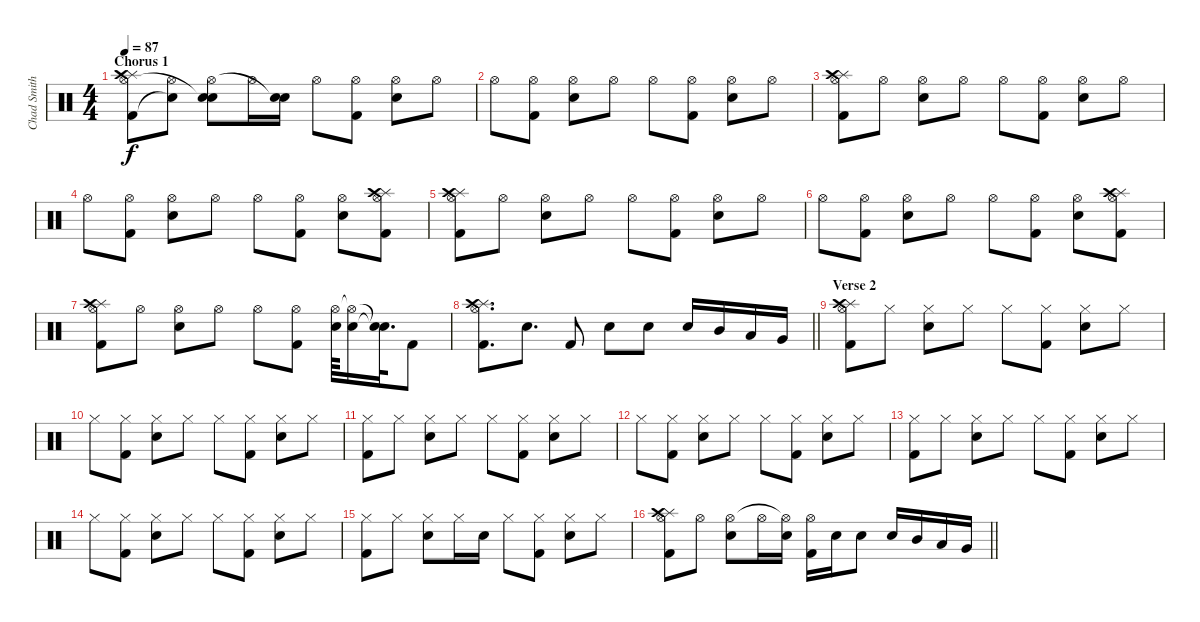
\track ("Chad Smith" "Chad Smith") {instrument percussion}
\staff {score}
\articulation defaults
\ts (4 4)
\section ("" "Chorus 1")
\tempo 87
\clef neutral
\ks c
("Splash (hit)" "Kick (hit) 2" "Hi-Hat (open)" "Crash high (hit)").8{dy f} ("Hi-Hat (open)" "Snare (hit)"{t}).8 ("Electric Snare (hit)" "Hi-Hat (open)" "Snare (hit)"{t}).8 "Hi-Hat (open)".16 ("Electric Snare (hit)" "Snare (hit)"{t}).16 "Hi-Hat (open)".8 ("Kick (hit) 2" "Hi-Hat (open)").8 ("Electric Snare (hit)" "Hi-Hat (open)").8 "Hi-Hat (open)".8 |
"Hi-Hat (open)".8 ("Kick (hit) 2" "Hi-Hat (open)").8 ("Electric Snare (hit)" "Hi-Hat (open)").8 "Hi-Hat (open)".8 "Hi-Hat (open)".8 ("Kick (hit) 2" "Hi-Hat (open)").8 ("Electric Snare (hit)" "Hi-Hat (open)").8 "Hi-Hat (open)".8 |
("Splash (hit)" "Kick (hit) 2" "Hi-Hat (open)" "Crash high (hit)").8 "Hi-Hat (open)".8 ("Electric Snare (hit)" "Hi-Hat (open)").8 "Hi-Hat (open)".8 "Hi-Hat (open)".8 ("Kick (hit) 2" "Hi-Hat (open)").8 ("Electric Snare (hit)" "Hi-Hat (open)").8 "Hi-Hat (open)".8 |
"Hi-Hat (open)".8 ("Kick (hit) 2" "Hi-Hat (open)").8 ("Electric Snare (hit)" "Hi-Hat (open)").8 "Hi-Hat (open)".8 "Hi-Hat (open)".8 ("Kick (hit) 2" "Hi-Hat (open)").8 ("Electric Snare (hit)" "Hi-Hat (open)").8 ("Splash (hit)" "Kick (hit) 2" "Hi-Hat (open)" "Crash high (hit)").8 |
("Splash (hit)" "Kick (hit) 2" "Hi-Hat (open)" "Crash high (hit)").8 "Hi-Hat (open)".8 ("Electric Snare (hit)" "Hi-Hat (open)").8 "Hi-Hat (open)".8 "Hi-Hat (open)".8 ("Kick (hit) 2" "Hi-Hat (open)").8 ("Electric Snare (hit)" "Hi-Hat (open)").8 "Hi-Hat (open)".8 |
"Hi-Hat (open)".8 ("Kick (hit) 2" "Hi-Hat (open)").8 ("Electric Snare (hit)" "Hi-Hat (open)").8 "Hi-Hat (open)".8 "Hi-Hat (open)".8 ("Kick (hit) 2" "Hi-Hat (open)").8 ("Electric Snare (hit)" "Hi-Hat (open)").8 ("Splash (hit)" "Kick (hit) 2" "Hi-Hat (open)" "Crash high (hit)").8 |
("Splash (hit)" "Kick (hit) 2" "Hi-Hat (open)" "Crash high (hit)").8 "Hi-Hat (open)".8 ("Electric Snare (hit)" "Hi-Hat (open)").8 "Hi-Hat (open)".8 "Hi-Hat (open)".8 ("Kick (hit) 2" "Hi-Hat (open)").8 ("Electric Snare (hit)" "Hi-Hat (open)").64 ("Electric Snare (hit)" "Hi-Hat (open)"{t}).16 ("Snare (hit)"{t} "Snare (hit)"{t}).32{d} "Kick (hit) 2".8 |
\barLineRight lightlight
("Splash (hit)" "Kick (hit) 2" "Hi-Hat (open)" "Crash high (hit)").8{d} "Electric Snare (hit)".8{d} "Kick (hit) 2".8 "Electric Snare (hit)".8 "Electric Snare (hit)".8 "Electric Snare (hit)".16 "Mid Tom (hit)".16 "Low Tom (hit)".16 "Very Low Tom (hit)".16 |
\section ("" "Verse 2")
("Splash (hit)" "Kick (hit) 2" "Hi-Hat (open)" "Crash high (hit)").8 "Hi-Hat (closed)".8 ("Electric Snare (hit)" "Hi-Hat (closed)").8 "Hi-Hat (closed)".8 "Hi-Hat (closed)".8 ("Kick (hit) 2" "Hi-Hat (closed)").8 ("Electric Snare (hit)" "Hi-Hat (closed)").8 "Hi-Hat (closed)".8 |
"Hi-Hat (closed)".8 ("Kick (hit) 2" "Hi-Hat (closed)").8 ("Electric Snare (hit)" "Hi-Hat (closed)").8 "Hi-Hat (closed)".8 "Hi-Hat (closed)".8 ("Kick (hit) 2" "Hi-Hat (closed)").8 ("Electric Snare (hit)" "Hi-Hat (closed)").8 "Hi-Hat (closed)".8 |
("Kick (hit) 2" "Hi-Hat (closed)").8 "Hi-Hat (closed)".8 ("Electric Snare (hit)" "Hi-Hat (closed)").8 "Hi-Hat (closed)".8 "Hi-Hat (closed)".8 ("Kick (hit) 2" "Hi-Hat (closed)").8 ("Electric Snare (hit)" "Hi-Hat (closed)").8 "Hi-Hat (closed)".8 |
"Hi-Hat (closed)".8 ("Kick (hit) 2" "Hi-Hat (closed)").8 ("Electric Snare (hit)" "Hi-Hat (closed)").8 "Hi-Hat (closed)".8 "Hi-Hat (closed)".8 ("Kick (hit) 2" "Hi-Hat (closed)").8 ("Electric Snare (hit)" "Hi-Hat (closed)").8 "Hi-Hat (closed)".8 |
("Kick (hit) 2" "Hi-Hat (closed)").8 "Hi-Hat (closed)".8 ("Electric Snare (hit)" "Hi-Hat (closed)").8 "Hi-Hat (closed)".8 "Hi-Hat (closed)".8 ("Kick (hit) 2" "Hi-Hat (closed)").8 ("Electric Snare (hit)" "Hi-Hat (closed)").8 "Hi-Hat (closed)".8 |
"Hi-Hat (closed)".8 ("Kick (hit) 2" "Hi-Hat (closed)").8 ("Electric Snare (hit)" "Hi-Hat (closed)").8 "Hi-Hat (closed)".8 "Hi-Hat (closed)".8 ("Kick (hit) 2" "Hi-Hat (closed)").8 ("Electric Snare (hit)" "Hi-Hat (closed)").8 "Hi-Hat (closed)".8 |
("Kick (hit) 2" "Hi-Hat (closed)").8 "Hi-Hat (closed)".8 ("Electric Snare (hit)" "Hi-Hat (closed)").8 "Hi-Hat (closed)".16 "Electric Snare (hit)".16 "Hi-Hat (closed)".8 ("Kick (hit) 2" "Hi-Hat (closed)").8 ("Electric Snare (hit)" "Hi-Hat (closed)").8 "Hi-Hat (closed)".8 |
\barLineRight lightlight
("Splash (hit)" "Kick (hit) 2" "Hi-Hat (open)" "Crash high (hit)").8 "Hi-Hat (open)".8 ("Electric Snare (hit)" "Hi-Hat (open)").8 "Hi-Hat (open)".16 ("Electric Snare (hit)" "Hi-Hat (open)"{t}).16 ("Kick (hit) 2" "Hi-Hat (open)").16 "Electric Snare (hit)".16 "Electric Snare (hit)".8 "Electric Snare (hit)".16 "Mid Tom (hit)".16 "Low Tom (hit)".16 "Very Low Tom (hit)".16
